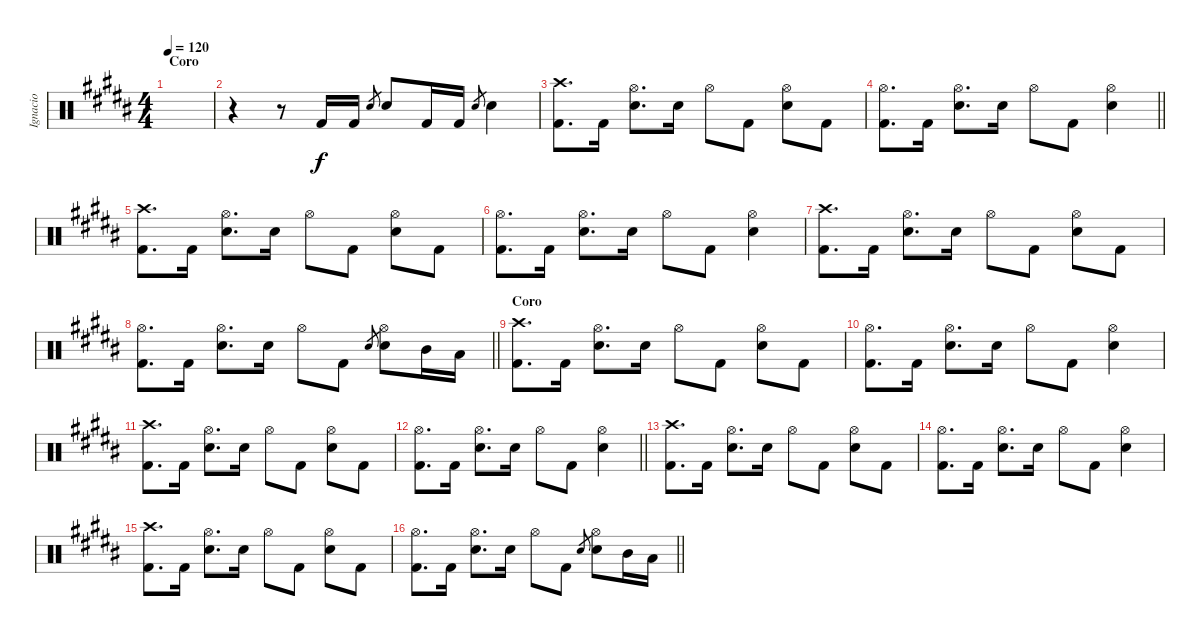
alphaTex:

\track ("Ignacio" "Ignacio") {instrument percussion}
\staff {score}
\articulation defaults
\ts (4 4)
\section ("" "Coro")
\tempo 120
\clef neutral
\ks b
|
r.4 r.8 "Kick (hit) 2".16 "Kick (hit) 2".16 "Snare (hit) 2".8{gr} "Snare (hit) 2".8 "Kick (hit) 2".16 "Kick (hit) 2".16 "Snare (hit) 2".8{gr} "Snare (hit) 2".4 |
("Crash high (hit)" "Kick (hit) 2").8{d} "Kick (hit) 2".16 ("Hi-Hat (open)" "Snare (hit) 2").8{d} "Snare (hit) 2".16 "Hi-Hat (open)".8 "Kick (hit) 2".8 ("Hi-Hat (open)" "Snare (hit) 2").8 "Kick (hit) 2".8 |
\barLineRight lightlight
("Hi-Hat (open)" "Kick (hit) 2").8{d} "Kick (hit) 2".16 ("Hi-Hat (open)" "Snare (hit) 2").8{d} "Snare (hit) 2".16 "Hi-Hat (open)".8 "Kick (hit) 2".8 ("Hi-Hat (open)" "Snare (hit) 2").4 |
("Crash high (hit)" "Kick (hit) 2").8{d} "Kick (hit) 2".16 ("Hi-Hat (open)" "Snare (hit) 2").8{d} "Snare (hit) 2".16 "Hi-Hat (open)".8 "Kick (hit) 2".8 ("Hi-Hat (open)" "Snare (hit) 2").8 "Kick (hit) 2".8 |
("Hi-Hat (open)" "Kick (hit) 2").8{d} "Kick (hit) 2".16 ("Hi-Hat (open)" "Snare (hit) 2").8{d} "Snare (hit) 2".16 "Hi-Hat (open)".8 "Kick (hit) 2".8 ("Hi-Hat (open)" "Snare (hit) 2").4 |
("Crash high (hit)" "Kick (hit) 2").8{d} "Kick (hit) 2".16 ("Hi-Hat (open)" "Snare (hit) 2").8{d} "Snare (hit) 2".16 "Hi-Hat (open)".8 "Kick (hit) 2".8 ("Hi-Hat (open)" "Snare (hit) 2").8 "Kick (hit) 2".8 |
\barLineRight lightlight
("Hi-Hat (open)" "Kick (hit) 2").8{d} "Kick (hit) 2".16 ("Hi-Hat (open)" "Snare (hit) 2").8{d} "Snare (hit) 2".16 "Hi-Hat (open)".8 "Kick (hit) 2".8 "Snare (hit) 2".8{gr} ("Hi-Hat (open)" "Snare (hit) 2").8 "Mid Tom (hit)".16 "Low Tom (hit)".16 |
\section ("" "Coro")
("Crash high (hit)" "Kick (hit) 2").8{d} "Kick (hit) 2".16 ("Hi-Hat (open)" "Snare (hit) 2").8{d} "Snare (hit) 2".16 "Hi-Hat (open)".8 "Kick (hit) 2".8 ("Hi-Hat (open)" "Snare (hit) 2").8 "Kick (hit) 2".8 |
("Hi-Hat (open)" "Kick (hit) 2").8{d} "Kick (hit) 2".16 ("Hi-Hat (open)" "Snare (hit) 2").8{d} "Snare (hit) 2".16 "Hi-Hat (open)".8 "Kick (hit) 2".8 ("Hi-Hat (open)" "Snare (hit) 2").4 |
("Crash high (hit)" "Kick (hit) 2").8{d} "Kick (hit) 2".16 ("Hi-Hat (open)" "Snare (hit) 2").8{d} "Snare (hit) 2".16 "Hi-Hat (open)".8 "Kick (hit) 2".8 ("Hi-Hat (open)" "Snare (hit) 2").8 "Kick (hit) 2".8 |
\barLineRight lightlight
("Hi-Hat (open)" "Kick (hit) 2").8{d} "Kick (hit) 2".16 ("Hi-Hat (open)" "Snare (hit) 2").8{d} "Snare (hit) 2".16 "Hi-Hat (open)".8 "Kick (hit) 2".8 ("Hi-Hat (open)" "Snare (hit) 2").4 |
("Crash high (hit)" "Kick (hit) 2").8{d} "Kick (hit) 2".16 ("Hi-Hat (open)" "Snare (hit) 2").8{d} "Snare (hit) 2".16 "Hi-Hat (open)".8 "Kick (hit) 2".8 ("Hi-Hat (open)" "Snare (hit) 2").8 "Kick (hit) 2".8 |
("Hi-Hat (open)" "Kick (hit) 2").8{d} "Kick (hit) 2".16 ("Hi-Hat (open)" "Snare (hit) 2").8{d} "Snare (hit) 2".16 "Hi-Hat (open)".8 "Kick (hit) 2".8 ("Hi-Hat (open)" "Snare (hit) 2").4 |
("Crash high (hit)" "Kick (hit) 2").8{d} "Kick (hit) 2".16 ("Hi-Hat (open)" "Snare (hit) 2").8{d} "Snare (hit) 2".16 "Hi-Hat (open)".8 "Kick (hit) 2".8 ("Hi-Hat (open)" "Snare (hit) 2").8 "Kick (hit) 2".8 |
\barLineRight lightlight
("Hi-Hat (open)" "Kick (hit) 2").8{d} "Kick (hit) 2".16 ("Hi-Hat (open)" "Snare (hit) 2").8{d} "Snare (hit) 2".16 "Hi-Hat (open)".8 "Kick (hit) 2".8 "Snare (hit) 2".8{gr} ("Hi-Hat (open)" "Snare (hit) 2").8 "Mid Tom (hit)".16 "Low Tom (hit)".16
